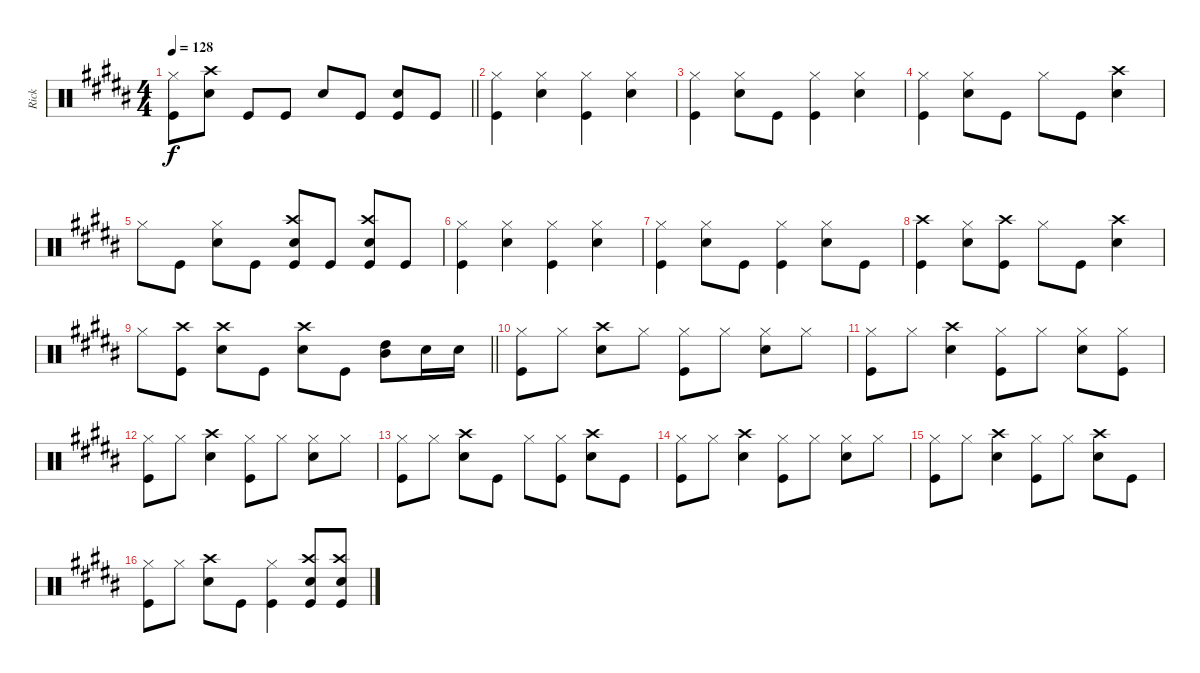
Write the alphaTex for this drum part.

\track ("Rick" "Rick") {instrument percussion}
\staff {score}
\articulation defaults
\ts (4 4)
\tempo 128
\clef neutral
\barLineRight lightlight
\ks b
("Hi-Hat (closed)" "Kick (hit)").8{dy f} ("Crash high (hit)" "Snare (hit) 2").8 "Kick (hit)".8 "Kick (hit)".8 "Snare (hit) 2".8 "Kick (hit)".8 ("Snare (hit) 2" "Kick (hit)").8 "Kick (hit)".8 |
("Hi-Hat (closed)" "Kick (hit)").4 ("Hi-Hat (closed)" "Snare (hit) 2").4 ("Hi-Hat (closed)" "Kick (hit)").4 ("Hi-Hat (closed)" "Snare (hit) 2").4 |
("Hi-Hat (closed)" "Kick (hit)").4 ("Hi-Hat (closed)" "Snare (hit) 2").8 "Kick (hit)".8 ("Hi-Hat (closed)" "Kick (hit)").4 ("Hi-Hat (closed)" "Snare (hit) 2").4 |
("Hi-Hat (closed)" "Kick (hit)").4 ("Hi-Hat (closed)" "Snare (hit) 2").8 "Kick (hit)".8 "Hi-Hat (closed)".8 "Kick (hit)".8 ("Crash high (hit)" "Snare (hit) 2").4 |
"Hi-Hat (closed)".8 "Kick (hit)".8 ("Hi-Hat (closed)" "Snare (hit) 2").8 "Kick (hit)".8 ("Crash high (hit)" "Snare (hit) 2" "Kick (hit)").8 "Kick (hit)".8 ("Crash high (hit)" "Snare (hit) 2" "Kick (hit)").8 "Kick (hit)".8 |
("Hi-Hat (closed)" "Kick (hit)").4 ("Hi-Hat (closed)" "Snare (hit) 2").4 ("Hi-Hat (closed)" "Kick (hit)").4 ("Hi-Hat (closed)" "Snare (hit) 2").4 |
("Hi-Hat (closed)" "Kick (hit)").4 ("Hi-Hat (closed)" "Snare (hit) 2").8 "Kick (hit)".8 ("Hi-Hat (closed)" "Kick (hit)").4 ("Hi-Hat (closed)" "Snare (hit) 2").8 "Kick (hit)".8 |
("Crash high (hit)" "Kick (hit)").4 ("Hi-Hat (closed)" "Snare (hit) 2").8 ("Crash high (hit)" "Kick (hit)").8 "Hi-Hat (closed)".8 "Kick (hit)".8 ("Crash high (hit)" "Snare (hit) 2").4 |
\barLineRight lightlight "Hi-Hat (closed)".8
("Crash high (hit)" "Kick (hit)").8 ("Crash high (hit)" "Snare (hit) 2").8 "Kick (hit)".8 ("Crash high (hit)" "Snare (hit) 2").8 "Kick (hit)".8 ("High Tom (hit)" "Mid Tom (hit)").8 "Snare (hit) 2".16 "Snare (hit) 2".16 |
("Hi-Hat (closed)" "Kick (hit)").8 "Hi-Hat (closed)".8 ("Crash high (hit)" "Snare (hit) 2").8 "Hi-Hat (closed)".8 ("Hi-Hat (closed)" "Kick (hit)").8 "Hi-Hat (closed)".8 ("Hi-Hat (closed)" "Snare (hit) 2").8 "Hi-Hat (closed)".8 |
("Hi-Hat (closed)" "Kick (hit)").8 "Hi-Hat (closed)".8 ("Crash high (hit)" "Snare (hit) 2").4 ("Hi-Hat (closed)" "Kick (hit)").8 "Hi-Hat (closed)".8 ("Hi-Hat (closed)" "Snare (hit) 2").8 ("Hi-Hat (closed)" "Kick (hit)").8 |
("Hi-Hat (closed)" "Kick (hit)").8 "Hi-Hat (closed)".8 ("Crash high (hit)" "Snare (hit) 2").4 ("Hi-Hat (closed)" "Kick (hit)").8 "Hi-Hat (closed)".8 ("Hi-Hat (closed)" "Snare (hit) 2").8 "Hi-Hat (closed)".8 |
("Hi-Hat (closed)" "Kick (hit)").8 "Hi-Hat (closed)".8 ("Crash high (hit)" "Snare (hit) 2").8 "Kick (hit)".8 "Hi-Hat (closed)".8 ("Hi-Hat (closed)" "Kick (hit)").8 ("Crash high (hit)" "Snare (hit) 2").8 "Kick (hit)".8 |
("Hi-Hat (closed)" "Kick (hit)").8 "Hi-Hat (closed)".8 ("Crash high (hit)" "Snare (hit) 2").4 ("Hi-Hat (closed)" "Kick (hit)").8 "Hi-Hat (closed)".8 ("Hi-Hat (closed)" "Snare (hit) 2").8 "Hi-Hat (closed)".8 |
("Hi-Hat (closed)" "Kick (hit)").8 "Hi-Hat (closed)".8 ("Crash high (hit)" "Snare (hit) 2").4 ("Hi-Hat (closed)" "Kick (hit)").8 "Hi-Hat (closed)".8 ("Crash high (hit)" "Snare (hit) 2").8 "Kick (hit)".8 |
("Hi-Hat (closed)" "Kick (hit)").8 "Hi-Hat (closed)".8 ("Crash high (hit)" "Snare (hit) 2").8 "Kick (hit)".8 ("Hi-Hat (closed)" "Kick (hit)").4 ("Crash high (hit)" "Snare (hit) 2" "Kick (hit)").8 ("Crash high (hit)" "Snare (hit) 2" "Kick (hit)").8
